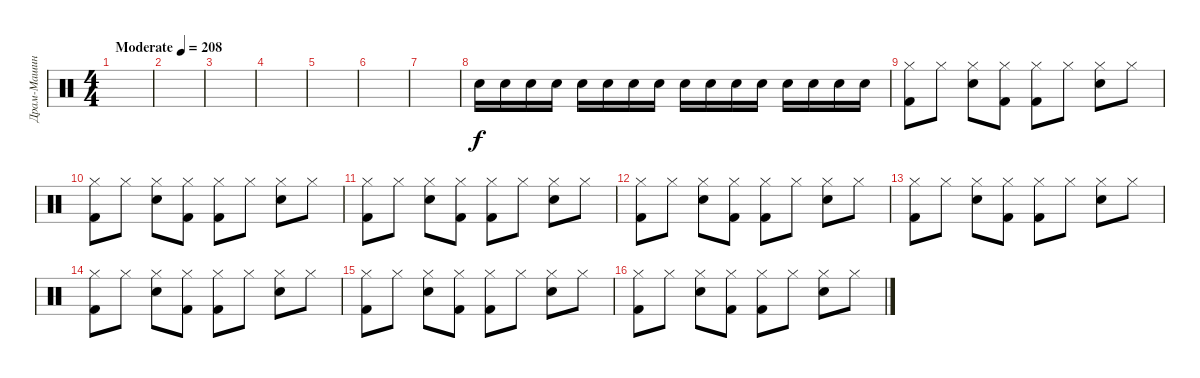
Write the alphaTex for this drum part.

\track ("Драм-Машина" "Драм-Машин") {instrument percussion}
\staff {score}
\articulation defaults
\ts (4 4)
\tempo (208 "Moderate")
\clef neutral
\ks c
|
|
|
|
|
|
|
"Electric Snare (hit)".16 "Electric Snare (hit)".16 "Electric Snare (hit)".16 "Electric Snare (hit)".16 "Electric Snare (hit)".16 "Electric Snare (hit)".16 "Electric Snare (hit)".16 "Electric Snare (hit)".16 "Electric Snare (hit)".16 "Electric Snare (hit)".16 "Electric Snare (hit)".16 "Electric Snare (hit)".16 "Electric Snare (hit)".16 "Electric Snare (hit)".16 "Electric Snare (hit)".16 "Electric Snare (hit)".16 |
("Hi-Hat (closed)" "Kick (hit) 2").8 "Hi-Hat (closed)".8 ("Hi-Hat (closed)" "Electric Snare (hit)").8 ("Hi-Hat (closed)" "Kick (hit) 2").8 ("Hi-Hat (closed)" "Kick (hit) 2").8 "Hi-Hat (closed)".8 ("Hi-Hat (closed)" "Electric Snare (hit)").8 "Hi-Hat (closed)".8 |
("Hi-Hat (closed)" "Kick (hit) 2").8 "Hi-Hat (closed)".8 ("Hi-Hat (closed)" "Electric Snare (hit)").8 ("Hi-Hat (closed)" "Kick (hit) 2").8 ("Hi-Hat (closed)" "Kick (hit) 2").8 "Hi-Hat (closed)".8 ("Hi-Hat (closed)" "Electric Snare (hit)").8 "Hi-Hat (closed)".8 |
("Hi-Hat (closed)" "Kick (hit) 2").8 "Hi-Hat (closed)".8 ("Hi-Hat (closed)" "Electric Snare (hit)").8 ("Hi-Hat (closed)" "Kick (hit) 2").8 ("Hi-Hat (closed)" "Kick (hit) 2").8 "Hi-Hat (closed)".8 ("Hi-Hat (closed)" "Electric Snare (hit)").8 "Hi-Hat (closed)".8 |
("Hi-Hat (closed)" "Kick (hit) 2").8 "Hi-Hat (closed)".8 ("Hi-Hat (closed)" "Electric Snare (hit)").8 ("Hi-Hat (closed)" "Kick (hit) 2").8 ("Hi-Hat (closed)" "Kick (hit) 2").8 "Hi-Hat (closed)".8 ("Hi-Hat (closed)" "Electric Snare (hit)").8 "Hi-Hat (closed)".8 |
("Hi-Hat (closed)" "Kick (hit) 2").8 "Hi-Hat (closed)".8 ("Hi-Hat (closed)" "Electric Snare (hit)").8 ("Hi-Hat (closed)" "Kick (hit) 2").8 ("Hi-Hat (closed)" "Kick (hit) 2").8 "Hi-Hat (closed)".8 ("Hi-Hat (closed)" "Electric Snare (hit)").8 "Hi-Hat (closed)".8 |
("Hi-Hat (closed)" "Kick (hit) 2").8 "Hi-Hat (closed)".8 ("Hi-Hat (closed)" "Electric Snare (hit)").8 ("Hi-Hat (closed)" "Kick (hit) 2").8 ("Hi-Hat (closed)" "Kick (hit) 2").8 "Hi-Hat (closed)".8 ("Hi-Hat (closed)" "Electric Snare (hit)").8 "Hi-Hat (closed)".8 |
("Hi-Hat (closed)" "Kick (hit) 2").8 "Hi-Hat (closed)".8 ("Hi-Hat (closed)" "Electric Snare (hit)").8 ("Hi-Hat (closed)" "Kick (hit) 2").8 ("Hi-Hat (closed)" "Kick (hit) 2").8 "Hi-Hat (closed)".8 ("Hi-Hat (closed)" "Electric Snare (hit)").8 "Hi-Hat (closed)".8 |
("Hi-Hat (closed)" "Kick (hit) 2").8 "Hi-Hat (closed)".8 ("Hi-Hat (closed)" "Electric Snare (hit)").8 ("Hi-Hat (closed)" "Kick (hit) 2").8 ("Hi-Hat (closed)" "Kick (hit) 2").8 "Hi-Hat (closed)".8 ("Hi-Hat (closed)" "Electric Snare (hit)").8 "Hi-Hat (closed)".8
